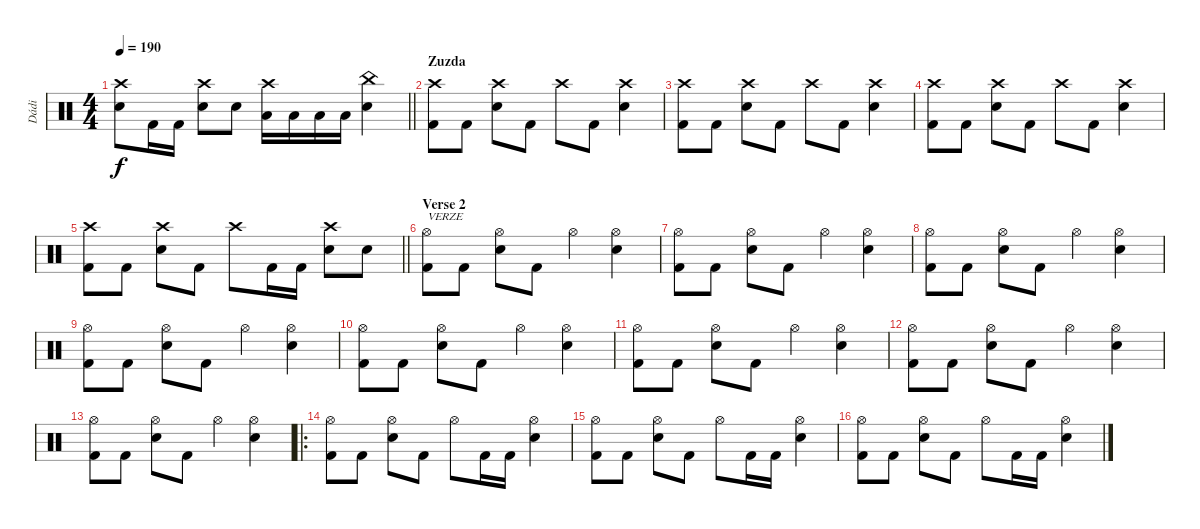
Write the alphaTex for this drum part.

\track ("Dádi" "Dádi") {instrument percussion}
\staff {score}
\articulation defaults
\ts (4 4)
\tempo 190
\clef neutral
\barLineRight lightlight
\ks c
("Crash high (hit)" "Electric Snare (hit)").8{dy f} "Kick (hit) 2".16 "Kick (hit) 2".16 ("Crash high (hit)" "Electric Snare (hit)").8 "Electric Snare (hit)".8 ("Crash high (hit)" "Low Floor Tom (hit)").16 "Low Floor Tom (hit)".16 "Low Floor Tom (hit)".16 "Low Floor Tom (hit)".16 ("Electric Snare (hit)" "China (hit)").4 |
\section ("" "Zuzda")
("Crash high (hit)" "Kick (hit) 2").8 "Kick (hit) 2".8 ("Electric Snare (hit)" "Crash high (hit)").8 "Kick (hit) 2".8 "Crash high (hit)".8 "Kick (hit) 2".8 ("Crash high (hit)" "Electric Snare (hit)").4 |
("Crash high (hit)" "Kick (hit) 2").8 "Kick (hit) 2".8 ("Crash high (hit)" "Electric Snare (hit)").8 "Kick (hit) 2".8 "Crash high (hit)".8 "Kick (hit) 2".8 ("Crash high (hit)" "Electric Snare (hit)").4 |
("Kick (hit) 2" "Crash high (hit)").8 "Kick (hit) 2".8 ("Electric Snare (hit)" "Crash high (hit)").8 "Kick (hit) 2".8 "Crash high (hit)".8 "Kick (hit) 2".8 ("Electric Snare (hit)" "Crash high (hit)").4 |
\barLineRight lightlight
("Kick (hit) 2" "Crash high (hit)").8 "Kick (hit) 2".8 ("Crash high (hit)" "Electric Snare (hit)").8 "Kick (hit) 2".8 "Crash high (hit)".8 "Kick (hit) 2".16 "Kick (hit) 2".16 ("Crash high (hit)" "Electric Snare (hit)").8 "Electric Snare (hit)".8 |
\section ("" "Verse 2")
("Kick (hit) 2" "Hi-Hat (open)").8{txt "VERZE"} "Kick (hit) 2".8 ("Electric Snare (hit)" "Hi-Hat (open)").8 "Kick (hit) 2".8 "Hi-Hat (open)".4 ("Electric Snare (hit)" "Hi-Hat (open)").4 |
("Kick (hit) 2" "Hi-Hat (open)").8 "Kick (hit) 2".8 ("Hi-Hat (open)" "Electric Snare (hit)").8 "Kick (hit) 2".8 "Hi-Hat (open)".4 ("Electric Snare (hit)" "Hi-Hat (open)").4 |
("Kick (hit) 2" "Hi-Hat (open)").8 "Kick (hit) 2".8 ("Hi-Hat (open)" "Electric Snare (hit)").8 "Kick (hit) 2".8 "Hi-Hat (open)".4 ("Electric Snare (hit)" "Hi-Hat (open)").4 |
("Kick (hit) 2" "Hi-Hat (open)").8 "Kick (hit) 2".8 ("Hi-Hat (open)" "Electric Snare (hit)").8 "Kick (hit) 2".8 "Hi-Hat (open)".4 ("Hi-Hat (open)" "Electric Snare (hit)").4 |
("Hi-Hat (open)" "Kick (hit) 2").8 "Kick (hit) 2".8 ("Electric Snare (hit)" "Hi-Hat (open)").8 "Kick (hit) 2".8 "Hi-Hat (open)".4 ("Hi-Hat (open)" "Electric Snare (hit)").4 |
("Hi-Hat (open)" "Kick (hit) 2").8 "Kick (hit) 2".8 ("Hi-Hat (open)" "Electric Snare (hit)").8 "Kick (hit) 2".8 "Hi-Hat (open)".4 ("Electric Snare (hit)" "Hi-Hat (open)").4 |
("Kick (hit) 2" "Hi-Hat (open)").8 "Kick (hit) 2".8 ("Hi-Hat (open)" "Electric Snare (hit)").8 "Kick (hit) 2".8 "Hi-Hat (open)".4 ("Electric Snare (hit)" "Hi-Hat (open)").4 |
("Kick (hit) 2" "Hi-Hat (open)").8 "Kick (hit) 2".8 ("Electric Snare (hit)" "Hi-Hat (open)").8 "Kick (hit) 2".8 "Hi-Hat (open)".4 ("Electric Snare (hit)" "Hi-Hat (open)").4 |
\ro
("Kick (hit) 2" "Hi-Hat (open)").8 "Kick (hit) 2".8 ("Hi-Hat (open)" "Electric Snare (hit)").8 "Kick (hit) 2".8 "Hi-Hat (open)".8 "Kick (hit) 2".16 "Kick (hit) 2".16 ("Hi-Hat (open)" "Electric Snare (hit)").4 |
("Hi-Hat (open)" "Kick (hit) 2").8 "Kick (hit) 2".8 ("Hi-Hat (open)" "Electric Snare (hit)").8 "Kick (hit) 2".8 "Hi-Hat (open)".8 "Kick (hit) 2".16 "Kick (hit) 2".16 ("Hi-Hat (open)" "Electric Snare (hit)").4 |
("Kick (hit) 2" "Hi-Hat (open)").8 "Kick (hit) 2".8 ("Hi-Hat (open)" "Electric Snare (hit)").8 "Kick (hit) 2".8 "Hi-Hat (open)".8 "Kick (hit) 2".16 "Kick (hit) 2".16 ("Hi-Hat (open)" "Electric Snare (hit)").4
